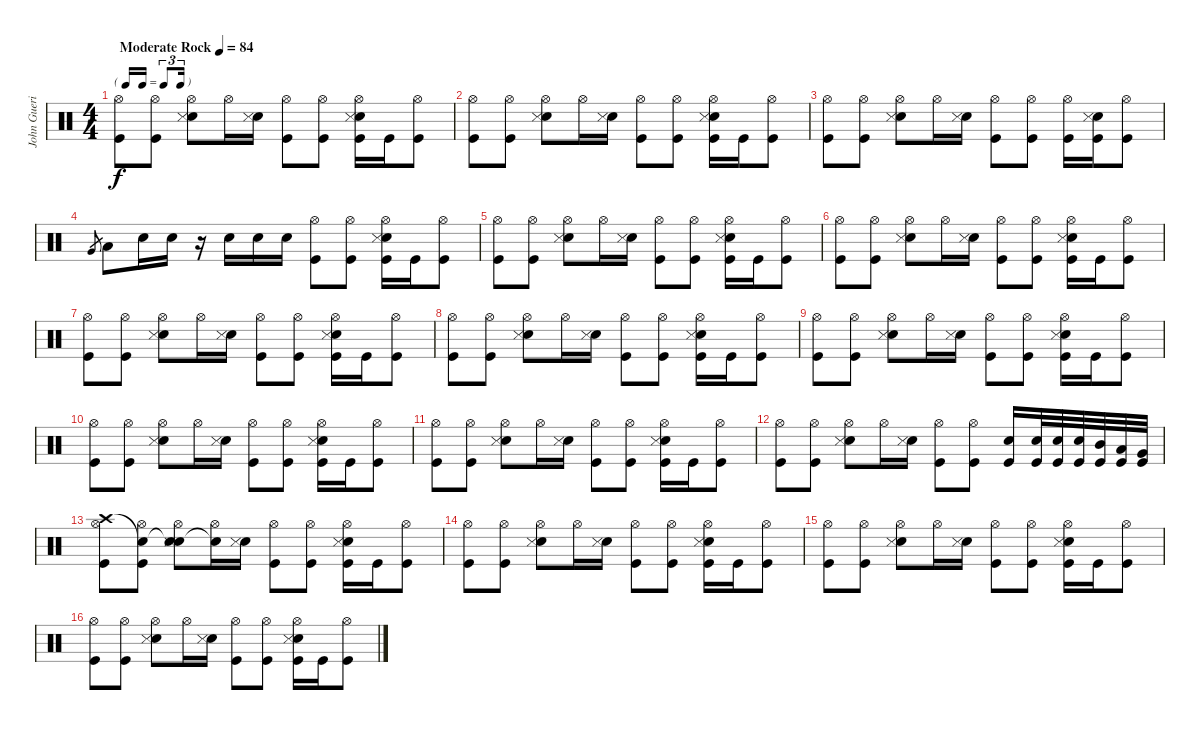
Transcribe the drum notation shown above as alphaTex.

\track ("John Guerin - Drums" "John Gueri") {instrument percussion}
\staff {score}
\articulation defaults
\ts (4 4)
\tf triplet16th
\tempo (84 "Moderate Rock")
\clef neutral
\ks c
("Hi-Hat (open)" "Kick (hit)").8{dy f} ("Hi-Hat (open)" "Kick (hit)").8 ("Hi-Hat (open)" "Electric Snare (hit)" "Snare (side stick) 3").8 "Hi-Hat (open)".16 ("Electric Snare (hit)" "Snare (side stick) 3").16 ("Hi-Hat (open)" "Kick (hit)").8 ("Hi-Hat (open)" "Kick (hit)").8 ("Hi-Hat (open)" "Electric Snare (hit)" "Snare (side stick) 3" "Kick (hit)").16 "Kick (hit)".16 ("Hi-Hat (open)" "Kick (hit)").8 |
("Hi-Hat (open)" "Kick (hit)").8 ("Hi-Hat (open)" "Kick (hit)").8 ("Hi-Hat (open)" "Electric Snare (hit)" "Snare (side stick) 3").8 "Hi-Hat (open)".16 ("Electric Snare (hit)" "Snare (side stick) 3").16 ("Hi-Hat (open)" "Kick (hit)").8 ("Hi-Hat (open)" "Kick (hit)").8 ("Hi-Hat (open)" "Electric Snare (hit)" "Snare (side stick) 3" "Kick (hit)").16 "Kick (hit)".16 ("Hi-Hat (open)" "Kick (hit)").8 |
("Hi-Hat (open)" "Kick (hit)").8 ("Hi-Hat (open)" "Kick (hit)").8 ("Hi-Hat (open)" "Electric Snare (hit)" "Snare (side stick) 3").8 "Hi-Hat (open)".16 ("Electric Snare (hit)" "Snare (side stick) 3").16 ("Hi-Hat (open)" "Kick (hit)").8 ("Hi-Hat (open)" "Kick (hit)").8 ("Hi-Hat (open)" "Kick (hit)").16 ("Electric Snare (hit)" "Snare (side stick) 3" "Kick (hit)").16 ("Hi-Hat (open)" "Kick (hit)").8 |
"Very Low Tom (hit)".8{gr} "Low Floor Tom (hit)".8 "Electric Snare (hit)".16 "Electric Snare (hit)".16 r.16 "Electric Snare (hit)".16 "Electric Snare (hit)".16 "Electric Snare (hit)".16 ("Hi-Hat (open)" "Kick (hit)").8 ("Hi-Hat (open)" "Kick (hit)").8 ("Hi-Hat (open)" "Electric Snare (hit)" "Snare (side stick) 3" "Kick (hit)").16 "Kick (hit)".16 ("Hi-Hat (open)" "Kick (hit)").8 |
("Hi-Hat (open)" "Kick (hit)").8 ("Hi-Hat (open)" "Kick (hit)").8 ("Hi-Hat (open)" "Electric Snare (hit)" "Snare (side stick) 3").8 "Hi-Hat (open)".16 ("Electric Snare (hit)" "Snare (side stick) 3").16 ("Hi-Hat (open)" "Kick (hit)").8 ("Hi-Hat (open)" "Kick (hit)").8 ("Hi-Hat (open)" "Electric Snare (hit)" "Snare (side stick) 3" "Kick (hit)").16 "Kick (hit)".16 ("Hi-Hat (open)" "Kick (hit)").8 |
("Hi-Hat (open)" "Kick (hit)").8 ("Hi-Hat (open)" "Kick (hit)").8 ("Hi-Hat (open)" "Electric Snare (hit)" "Snare (side stick) 3").8 "Hi-Hat (open)".16 ("Electric Snare (hit)" "Snare (side stick) 3").16 ("Hi-Hat (open)" "Kick (hit)").8 ("Hi-Hat (open)" "Kick (hit)").8 ("Hi-Hat (open)" "Electric Snare (hit)" "Snare (side stick) 3" "Kick (hit)").16 "Kick (hit)".16 ("Hi-Hat (open)" "Kick (hit)").8 |
("Hi-Hat (open)" "Kick (hit)").8 ("Hi-Hat (open)" "Kick (hit)").8 ("Hi-Hat (open)" "Electric Snare (hit)" "Snare (side stick) 3").8 "Hi-Hat (open)".16 ("Electric Snare (hit)" "Snare (side stick) 3").16 ("Hi-Hat (open)" "Kick (hit)").8 ("Hi-Hat (open)" "Kick (hit)").8 ("Hi-Hat (open)" "Electric Snare (hit)" "Snare (side stick) 3" "Kick (hit)").16 "Kick (hit)".16 ("Hi-Hat (open)" "Kick (hit)").8 |
("Hi-Hat (open)" "Kick (hit)").8 ("Hi-Hat (open)" "Kick (hit)").8 ("Hi-Hat (open)" "Electric Snare (hit)" "Snare (side stick) 3").8 "Hi-Hat (open)".16 ("Electric Snare (hit)" "Snare (side stick) 3").16 ("Hi-Hat (open)" "Kick (hit)").8 ("Hi-Hat (open)" "Kick (hit)").8 ("Hi-Hat (open)" "Electric Snare (hit)" "Snare (side stick) 3" "Kick (hit)").16 "Kick (hit)".16 ("Hi-Hat (open)" "Kick (hit)").8 |
("Hi-Hat (open)" "Kick (hit)").8 ("Hi-Hat (open)" "Kick (hit)").8 ("Hi-Hat (open)" "Electric Snare (hit)" "Snare (side stick) 3").8 "Hi-Hat (open)".16 ("Electric Snare (hit)" "Snare (side stick) 3").16 ("Hi-Hat (open)" "Kick (hit)").8 ("Hi-Hat (open)" "Kick (hit)").8 ("Hi-Hat (open)" "Electric Snare (hit)" "Snare (side stick) 3" "Kick (hit)").16 "Kick (hit)".16 ("Hi-Hat (open)" "Kick (hit)").8 |
("Hi-Hat (open)" "Kick (hit)").8 ("Hi-Hat (open)" "Kick (hit)").8 ("Hi-Hat (open)" "Electric Snare (hit)" "Snare (side stick) 3").8 "Hi-Hat (open)".16 ("Electric Snare (hit)" "Snare (side stick) 3").16 ("Hi-Hat (open)" "Kick (hit)").8 ("Hi-Hat (open)" "Kick (hit)").8 ("Hi-Hat (open)" "Electric Snare (hit)" "Snare (side stick) 3" "Kick (hit)").16 "Kick (hit)".16 ("Hi-Hat (open)" "Kick (hit)").8 |
("Hi-Hat (open)" "Kick (hit)").8 ("Hi-Hat (open)" "Kick (hit)").8 ("Hi-Hat (open)" "Electric Snare (hit)" "Snare (side stick) 3").8 "Hi-Hat (open)".16 ("Electric Snare (hit)" "Snare (side stick) 3").16 ("Hi-Hat (open)" "Kick (hit)").8 ("Hi-Hat (open)" "Kick (hit)").8 ("Hi-Hat (open)" "Electric Snare (hit)" "Snare (side stick) 3" "Kick (hit)").16 "Kick (hit)".16 ("Hi-Hat (open)" "Kick (hit)").8 |
("Hi-Hat (open)" "Kick (hit)").8 ("Hi-Hat (open)" "Kick (hit)").8 ("Hi-Hat (open)" "Electric Snare (hit)" "Snare (side stick) 3").8 "Hi-Hat (open)".16 ("Electric Snare (hit)" "Snare (side stick) 3").16 ("Hi-Hat (open)" "Kick (hit)").8 ("Hi-Hat (open)" "Kick (hit)").8 ("Electric Snare (hit)" "Kick (hit)").16 ("Electric Snare (hit)" "Kick (hit)").32 ("Electric Snare (hit)" "Kick (hit)").32 ("Electric Snare (hit)" "Kick (hit)").32 ("Mid Tom (hit)" "Kick (hit)").32 ("Low Tom (hit)" "Kick (hit)").32 ("Very Low Tom (hit)" "Kick (hit)").32 |
("Crash high (hit)" "Hi-Hat (open)" "Kick (hit)").8 ("Snare (hit)"{t} "Hi-Hat (open)" "Kick (hit)").8 ("Snare (hit)"{t} "Hi-Hat (open)" "Electric Snare (hit)" "Snare (side stick) 3").8 ("Snare (hit)"{t} "Hi-Hat (open)").16 ("Electric Snare (hit)" "Snare (side stick) 3").16 ("Hi-Hat (open)" "Kick (hit)").8 ("Hi-Hat (open)" "Kick (hit)").8 ("Hi-Hat (open)" "Electric Snare (hit)" "Snare (side stick) 3" "Kick (hit)").16 "Kick (hit)".16 ("Hi-Hat (open)" "Kick (hit)").8 |
("Hi-Hat (open)" "Kick (hit)").8 ("Hi-Hat (open)" "Kick (hit)").8 ("Hi-Hat (open)" "Electric Snare (hit)" "Snare (side stick) 3").8 "Hi-Hat (open)".16 ("Electric Snare (hit)" "Snare (side stick) 3").16 ("Hi-Hat (open)" "Kick (hit)").8 ("Hi-Hat (open)" "Kick (hit)").8 ("Hi-Hat (open)" "Electric Snare (hit)" "Snare (side stick) 3" "Kick (hit)").16 "Kick (hit)".16 ("Hi-Hat (open)" "Kick (hit)").8 |
("Hi-Hat (open)" "Kick (hit)").8 ("Hi-Hat (open)" "Kick (hit)").8 ("Hi-Hat (open)" "Electric Snare (hit)" "Snare (side stick) 3").8 "Hi-Hat (open)".16 ("Electric Snare (hit)" "Snare (side stick) 3").16 ("Hi-Hat (open)" "Kick (hit)").8 ("Hi-Hat (open)" "Kick (hit)").8 ("Hi-Hat (open)" "Electric Snare (hit)" "Snare (side stick) 3" "Kick (hit)").16 "Kick (hit)".16 ("Hi-Hat (open)" "Kick (hit)").8 |
("Hi-Hat (open)" "Kick (hit)").8 ("Hi-Hat (open)" "Kick (hit)").8 ("Hi-Hat (open)" "Electric Snare (hit)" "Snare (side stick) 3").8 "Hi-Hat (open)".16 ("Electric Snare (hit)" "Snare (side stick) 3").16 ("Hi-Hat (open)" "Kick (hit)").8 ("Hi-Hat (open)" "Kick (hit)").8 ("Hi-Hat (open)" "Electric Snare (hit)" "Snare (side stick) 3" "Kick (hit)").16 "Kick (hit)".16 ("Hi-Hat (open)" "Kick (hit)").8
